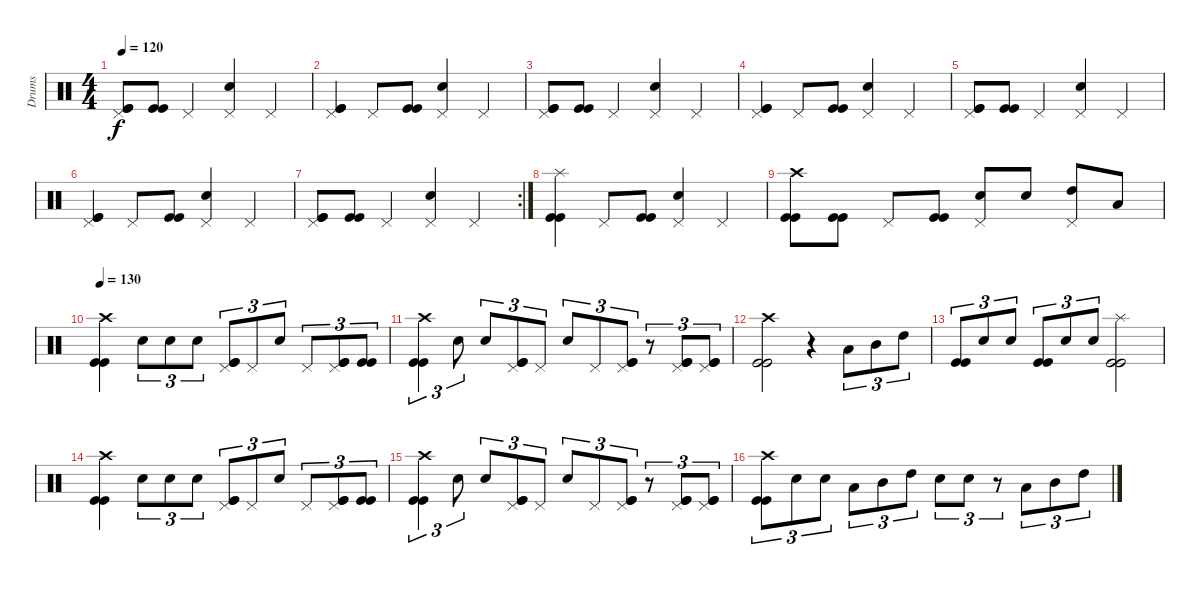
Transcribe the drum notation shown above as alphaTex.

\track ("Drums" "Drums") {instrument percussion}
\staff {score}
\articulation defaults
\ts (4 4)
\tempo 120
\clef neutral
\ks c
("Pedal Hi-Hat (hit)" "Kick (hit)" "Kick (hit)").8{dy f} ("Kick (hit)" "Kick (hit)").8 "Pedal Hi-Hat (hit)".4 ("Pedal Hi-Hat (hit)" "Snare (hit) 2").4 "Pedal Hi-Hat (hit)".4 |
("Pedal Hi-Hat (hit)" "Kick (hit)" "Kick (hit)").4 "Pedal Hi-Hat (hit)".8 ("Kick (hit)" "Kick (hit)").8 ("Pedal Hi-Hat (hit)" "Snare (hit) 2").4 "Pedal Hi-Hat (hit)".4 |
("Pedal Hi-Hat (hit)" "Kick (hit)" "Kick (hit)").8 ("Kick (hit)" "Kick (hit)").8 "Pedal Hi-Hat (hit)".4 ("Pedal Hi-Hat (hit)" "Snare (hit) 2").4 "Pedal Hi-Hat (hit)".4 |
("Pedal Hi-Hat (hit)" "Kick (hit)" "Kick (hit)").4 "Pedal Hi-Hat (hit)".8 ("Kick (hit)" "Kick (hit)").8 ("Pedal Hi-Hat (hit)" "Snare (hit) 2").4 "Pedal Hi-Hat (hit)".4 |
("Pedal Hi-Hat (hit)" "Kick (hit)" "Kick (hit)").8 ("Kick (hit)" "Kick (hit)").8 "Pedal Hi-Hat (hit)".4 ("Pedal Hi-Hat (hit)" "Snare (hit) 2").4 "Pedal Hi-Hat (hit)".4 |
("Pedal Hi-Hat (hit)" "Kick (hit)" "Kick (hit)").4 "Pedal Hi-Hat (hit)".8 ("Kick (hit)" "Kick (hit)").8 ("Pedal Hi-Hat (hit)" "Snare (hit) 2").4 "Pedal Hi-Hat (hit)".4 |
\rc 2
("Pedal Hi-Hat (hit)" "Kick (hit)" "Kick (hit)").8 ("Kick (hit)" "Kick (hit)").8 "Pedal Hi-Hat (hit)".4 ("Pedal Hi-Hat (hit)" "Snare (hit) 2").4 "Pedal Hi-Hat (hit)".4 |
("Splash (hit)" "Kick (hit)" "Kick (hit)").4 "Pedal Hi-Hat (hit)".8 ("Kick (hit)" "Kick (hit)").8 ("Pedal Hi-Hat (hit)" "Snare (hit) 2").4 "Pedal Hi-Hat (hit)".4 |
("Crash high (hit)" "Kick (hit)" "Kick (hit)").8 ("Kick (hit)" "Kick (hit)").8 "Pedal Hi-Hat (hit)".8 ("Kick (hit)" "Kick (hit)").8 ("Pedal Hi-Hat (hit)" "Snare (hit) 2").8 "Snare (hit) 2".8 ("Pedal Hi-Hat (hit)" "High Tom (hit)").8 "Low Tom (hit)".8 |
\tempo 130
("Crash high (hit)" "Kick (hit)" "Kick (hit)").4 "Snare (hit) 2".8{tu (3 2)} "Snare (hit) 2".8{tu (3 2)} "Snare (hit) 2".8{tu (3 2)} ("Pedal Hi-Hat (hit)" "Kick (hit)" "Kick (hit)").8{tu (3 2)} "Pedal Hi-Hat (hit)".8{tu (3 2)} "Snare (hit) 2".8{tu (3 2)} "Pedal Hi-Hat (hit)".8{tu (3 2)} ("Pedal Hi-Hat (hit)" "Kick (hit)" "Kick (hit)").8{tu (3 2)} ("Kick (hit)" "Kick (hit)").8{tu (3 2)} |
("Crash high (hit)" "Kick (hit)" "Kick (hit)").4{tu (3 2)} "Snare (hit) 2".8{tu (3 2)} "Snare (hit) 2".8{tu (3 2)} ("Pedal Hi-Hat (hit)" "Kick (hit)" "Kick (hit)").8{tu (3 2)} "Pedal Hi-Hat (hit)".8{tu (3 2)} "Snare (hit) 2".8{tu (3 2)} "Pedal Hi-Hat (hit)".8{tu (3 2)} ("Pedal Hi-Hat (hit)" "Kick (hit)" "Kick (hit)").8{tu (3 2)} r.8{tu (3 2)} ("Pedal Hi-Hat (hit)" "Kick (hit)" "Kick (hit)").8{tu (3 2)} ("Pedal Hi-Hat (hit)" "Kick (hit)" "Kick (hit)").8{tu (3 2)} |
("Crash high (hit)" "Kick (hit)" "Kick (hit)").2 r.4 "Low Tom (hit)".8{tu (3 2)} "Mid Tom (hit)".8{tu (3 2)} "High Tom (hit)".8{tu (3 2)} |
("Kick (hit)" "Kick (hit)").8{tu (3 2)} "Snare (hit) 2".8{tu (3 2)} "Snare (hit) 2".8{tu (3 2)} ("Kick (hit)" "Kick (hit)").8{tu (3 2)} "Snare (hit) 2".8{tu (3 2)} "Snare (hit) 2".8{tu (3 2)} ("Splash (hit)" "Kick (hit)" "Kick (hit)").2 |
("Crash high (hit)" "Kick (hit)" "Kick (hit)").4 "Snare (hit) 2".8{tu (3 2)} "Snare (hit) 2".8{tu (3 2)} "Snare (hit) 2".8{tu (3 2)} ("Pedal Hi-Hat (hit)" "Kick (hit)" "Kick (hit)").8{tu (3 2)} "Pedal Hi-Hat (hit)".8{tu (3 2)} "Snare (hit) 2".8{tu (3 2)} "Pedal Hi-Hat (hit)".8{tu (3 2)} ("Pedal Hi-Hat (hit)" "Kick (hit)" "Kick (hit)").8{tu (3 2)} ("Kick (hit)" "Kick (hit)").8{tu (3 2)} |
("Crash high (hit)" "Kick (hit)" "Kick (hit)").4{tu (3 2)} "Snare (hit) 2".8{tu (3 2)} "Snare (hit) 2".8{tu (3 2)} ("Pedal Hi-Hat (hit)" "Kick (hit)" "Kick (hit)").8{tu (3 2)} "Pedal Hi-Hat (hit)".8{tu (3 2)} "Snare (hit) 2".8{tu (3 2)} "Pedal Hi-Hat (hit)".8{tu (3 2)} ("Pedal Hi-Hat (hit)" "Kick (hit)" "Kick (hit)").8{tu (3 2)} r.8{tu (3 2)} ("Pedal Hi-Hat (hit)" "Kick (hit)" "Kick (hit)").8{tu (3 2)} ("Pedal Hi-Hat (hit)" "Kick (hit)" "Kick (hit)").8{tu (3 2)} |
("Crash high (hit)" "Kick (hit)" "Kick (hit)").8{tu (3 2)} "Snare (hit) 2".8{tu (3 2)} "Snare (hit) 2".8{tu (3 2)} "Low Tom (hit)".8{tu (3 2)} "Mid Tom (hit)".8{tu (3 2)} "High Tom (hit)".8{tu (3 2)} "Snare (hit) 2".8{tu (3 2)} "Snare (hit) 2".8{tu (3 2)} r.8{tu (3 2)} "Low Tom (hit)".8{tu (3 2)} "Mid Tom (hit)".8{tu (3 2)} "High Tom (hit)".8{tu (3 2)}
